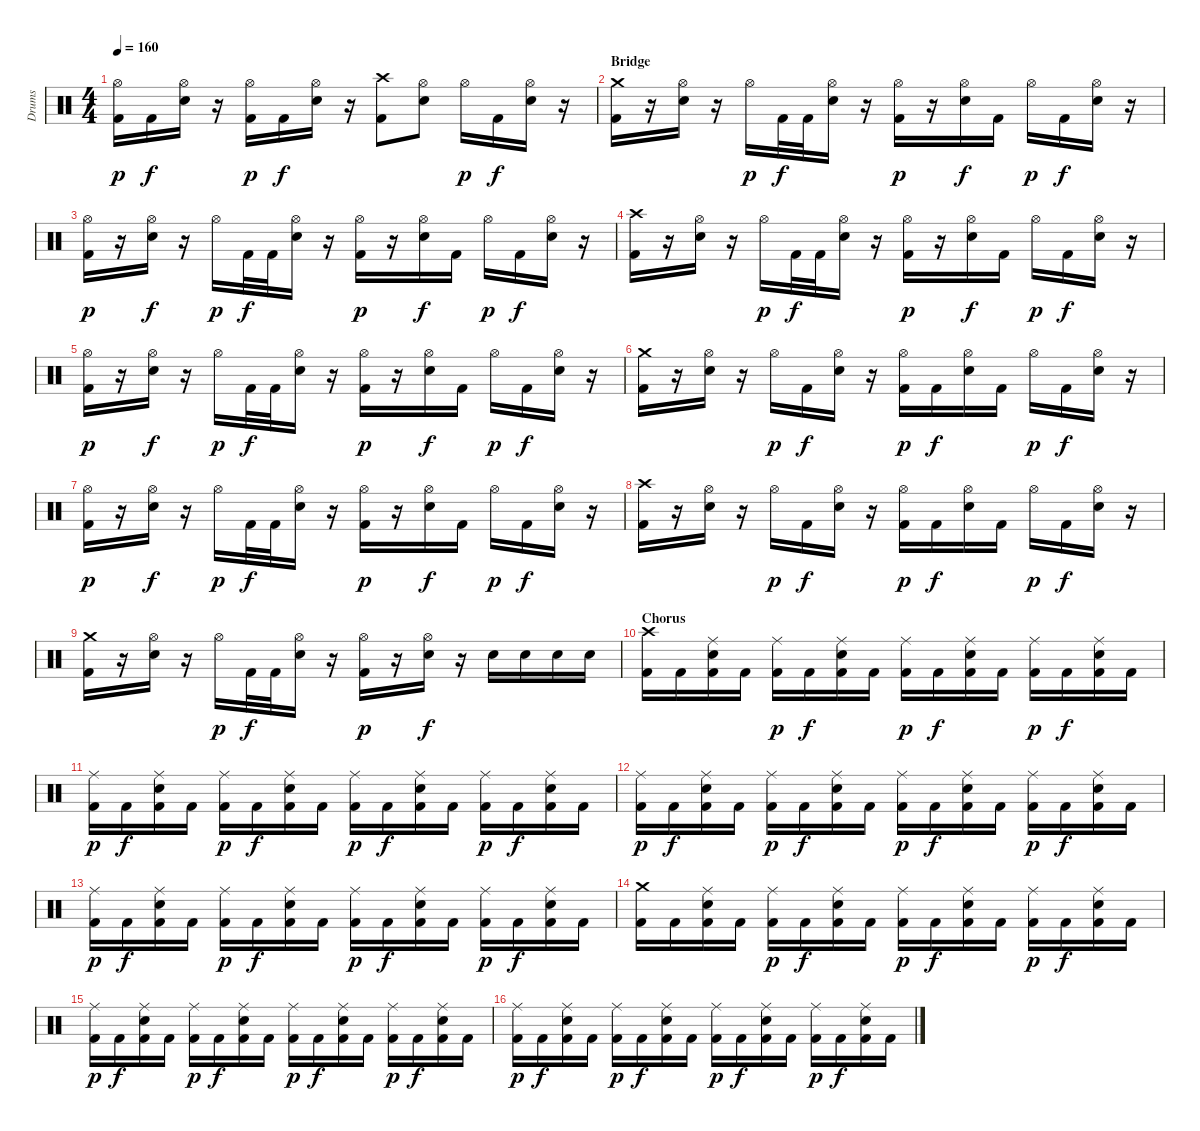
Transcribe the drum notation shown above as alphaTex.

\track ("Drums" "Drums") {instrument percussion}
\staff {score}
\articulation defaults
\ts (4 4)
\tempo 160
\clef neutral
\ks c
("Hi-Hat (open)" "Kick (hit) 2").16{dy p} "Kick (hit) 2".16{dy f} ("Hi-Hat (open)" "Snare (hit) 2").16 r.16 ("Hi-Hat (open)" "Kick (hit) 2").16{dy p} "Kick (hit) 2".16{dy f} ("Hi-Hat (open)" "Snare (hit) 2").16 r.16 ("Crash high (hit)" "Kick (hit) 2").8 ("Hi-Hat (open)" "Snare (hit) 2").8 "Hi-Hat (open)".16{dy p} "Kick (hit) 2".16{dy f} ("Hi-Hat (open)" "Snare (hit) 2").16 r.16 |
\section ("" "Bridge")
("Crash medium (hit)" "Kick (hit) 2").16 r.16 ("Hi-Hat (open)" "Snare (hit) 2").16 r.16 "Hi-Hat (open)".16{dy p} "Kick (hit) 2".32{dy f} "Kick (hit) 2".32 ("Hi-Hat (open)" "Snare (hit) 2").16 r.16 ("Hi-Hat (open)" "Kick (hit) 2").16{dy p} r.16 ("Hi-Hat (open)" "Snare (hit) 2").16{dy f} "Kick (hit) 2".16 "Hi-Hat (open)".16{dy p} "Kick (hit) 2".16{dy f} ("Hi-Hat (open)" "Snare (hit) 2").16 r.16 |
("Hi-Hat (open)" "Kick (hit) 2").16{dy p} r.16 ("Hi-Hat (open)" "Snare (hit) 2").16{dy f} r.16 "Hi-Hat (open)".16{dy p} "Kick (hit) 2".32{dy f} "Kick (hit) 2".32 ("Hi-Hat (open)" "Snare (hit) 2").16 r.16 ("Hi-Hat (open)" "Kick (hit) 2").16{dy p} r.16 ("Hi-Hat (open)" "Snare (hit) 2").16{dy f} "Kick (hit) 2".16 "Hi-Hat (open)".16{dy p} "Kick (hit) 2".16{dy f} ("Hi-Hat (open)" "Snare (hit) 2").16 r.16 |
("Crash high (hit)" "Kick (hit) 2").16 r.16 ("Hi-Hat (open)" "Snare (hit) 2").16 r.16 "Hi-Hat (open)".16{dy p} "Kick (hit) 2".32{dy f} "Kick (hit) 2".32 ("Hi-Hat (open)" "Snare (hit) 2").16 r.16 ("Hi-Hat (open)" "Kick (hit) 2").16{dy p} r.16 ("Hi-Hat (open)" "Snare (hit) 2").16{dy f} "Kick (hit) 2".16 "Hi-Hat (open)".16{dy p} "Kick (hit) 2".16{dy f} ("Hi-Hat (open)" "Snare (hit) 2").16 r.16 |
("Hi-Hat (open)" "Kick (hit) 2").16{dy p} r.16 ("Hi-Hat (open)" "Snare (hit) 2").16{dy f} r.16 "Hi-Hat (open)".16{dy p} "Kick (hit) 2".32{dy f} "Kick (hit) 2".32 ("Hi-Hat (open)" "Snare (hit) 2").16 r.16 ("Hi-Hat (open)" "Kick (hit) 2").16{dy p} r.16 ("Hi-Hat (open)" "Snare (hit) 2").16{dy f} "Kick (hit) 2".16 "Hi-Hat (open)".16{dy p} "Kick (hit) 2".16{dy f} ("Hi-Hat (open)" "Snare (hit) 2").16 r.16 |
("Crash medium (hit)" "Kick (hit) 2").16 r.16 ("Hi-Hat (open)" "Snare (hit) 2").16 r.16 "Hi-Hat (open)".16{dy p} "Kick (hit) 2".16{dy f} ("Hi-Hat (open)" "Snare (hit) 2").16 r.16 ("Hi-Hat (open)" "Kick (hit) 2").16{dy p} "Kick (hit) 2".16{dy f} ("Hi-Hat (open)" "Snare (hit) 2").16 "Kick (hit) 2".16 "Hi-Hat (open)".16{dy p} "Kick (hit) 2".16{dy f} ("Hi-Hat (open)" "Snare (hit) 2").16 r.16 |
("Hi-Hat (open)" "Kick (hit) 2").16{dy p} r.16 ("Hi-Hat (open)" "Snare (hit) 2").16{dy f} r.16 "Hi-Hat (open)".16{dy p} "Kick (hit) 2".32{dy f} "Kick (hit) 2".32 ("Hi-Hat (open)" "Snare (hit) 2").16 r.16 ("Hi-Hat (open)" "Kick (hit) 2").16{dy p} r.16 ("Hi-Hat (open)" "Snare (hit) 2").16{dy f} "Kick (hit) 2".16 "Hi-Hat (open)".16{dy p} "Kick (hit) 2".16{dy f} ("Hi-Hat (open)" "Snare (hit) 2").16 r.16 |
("Crash high (hit)" "Kick (hit) 2").16 r.16 ("Hi-Hat (open)" "Snare (hit) 2").16 r.16 "Hi-Hat (open)".16{dy p} "Kick (hit) 2".16{dy f} ("Hi-Hat (open)" "Snare (hit) 2").16 r.16 ("Hi-Hat (open)" "Kick (hit) 2").16{dy p} "Kick (hit) 2".16{dy f} ("Hi-Hat (open)" "Snare (hit) 2").16 "Kick (hit) 2".16 "Hi-Hat (open)".16{dy p} "Kick (hit) 2".16{dy f} ("Hi-Hat (open)" "Snare (hit) 2").16 r.16 |
("Crash medium (hit)" "Kick (hit) 2").16 r.16 ("Hi-Hat (open)" "Snare (hit) 2").16 r.16 "Hi-Hat (open)".16{dy p} "Kick (hit) 2".32{dy f} "Kick (hit) 2".32 ("Hi-Hat (open)" "Snare (hit) 2").16 r.16 ("Hi-Hat (open)" "Kick (hit) 2").16{dy p} r.16 ("Hi-Hat (open)" "Snare (hit) 2").16{dy f} r.16 "Snare (hit) 2".16 "Snare (hit) 2".16 "Snare (hit) 2".16 "Snare (hit) 2".16 |
\section ("" "Chorus")
("Crash high (hit)" "Kick (hit) 2").16 "Kick (hit) 2".16 ("Ride (middle)" "Snare (hit) 2" "Kick (hit) 2").16 "Kick (hit) 2".16 ("Ride (middle)" "Kick (hit) 2").16{dy p} "Kick (hit) 2".16{dy f} ("Ride (middle)" "Snare (hit) 2" "Kick (hit) 2").16 "Kick (hit) 2".16 ("Ride (middle)" "Kick (hit) 2").16{dy p} "Kick (hit) 2".16{dy f} ("Ride (middle)" "Snare (hit) 2" "Kick (hit) 2").16 "Kick (hit) 2".16 ("Ride (middle)" "Kick (hit) 2").16{dy p} "Kick (hit) 2".16{dy f} ("Ride (middle)" "Snare (hit) 2" "Kick (hit) 2").16 "Kick (hit) 2".16 |
("Ride (middle)" "Kick (hit) 2").16{dy p} "Kick (hit) 2".16{dy f} ("Ride (middle)" "Snare (hit) 2" "Kick (hit) 2").16 "Kick (hit) 2".16 ("Ride (middle)" "Kick (hit) 2").16{dy p} "Kick (hit) 2".16{dy f} ("Ride (middle)" "Snare (hit) 2" "Kick (hit) 2").16 "Kick (hit) 2".16 ("Ride (middle)" "Kick (hit) 2").16{dy p} "Kick (hit) 2".16{dy f} ("Ride (middle)" "Snare (hit) 2" "Kick (hit) 2").16 "Kick (hit) 2".16 ("Ride (middle)" "Kick (hit) 2").16{dy p} "Kick (hit) 2".16{dy f} ("Ride (middle)" "Snare (hit) 2" "Kick (hit) 2").16 "Kick (hit) 2".16 |
("Ride (middle)" "Kick (hit) 2").16{dy p} "Kick (hit) 2".16{dy f} ("Ride (middle)" "Snare (hit) 2" "Kick (hit) 2").16 "Kick (hit) 2".16 ("Ride (middle)" "Kick (hit) 2").16{dy p} "Kick (hit) 2".16{dy f} ("Ride (middle)" "Snare (hit) 2" "Kick (hit) 2").16 "Kick (hit) 2".16 ("Ride (middle)" "Kick (hit) 2").16{dy p} "Kick (hit) 2".16{dy f} ("Ride (middle)" "Snare (hit) 2" "Kick (hit) 2").16 "Kick (hit) 2".16 ("Ride (middle)" "Kick (hit) 2").16{dy p} "Kick (hit) 2".16{dy f} ("Ride (middle)" "Snare (hit) 2" "Kick (hit) 2").16 "Kick (hit) 2".16 |
("Ride (middle)" "Kick (hit) 2").16{dy p} "Kick (hit) 2".16{dy f} ("Ride (middle)" "Snare (hit) 2" "Kick (hit) 2").16 "Kick (hit) 2".16 ("Ride (middle)" "Kick (hit) 2").16{dy p} "Kick (hit) 2".16{dy f} ("Ride (middle)" "Snare (hit) 2" "Kick (hit) 2").16 "Kick (hit) 2".16 ("Ride (middle)" "Kick (hit) 2").16{dy p} "Kick (hit) 2".16{dy f} ("Ride (middle)" "Snare (hit) 2" "Kick (hit) 2").16 "Kick (hit) 2".16 ("Ride (middle)" "Kick (hit) 2").16{dy p} "Kick (hit) 2".16{dy f} ("Ride (middle)" "Snare (hit) 2" "Kick (hit) 2").16 "Kick (hit) 2".16 |
("Crash medium (hit)" "Kick (hit) 2").16 "Kick (hit) 2".16 ("Ride (middle)" "Snare (hit) 2" "Kick (hit) 2").16 "Kick (hit) 2".16 ("Ride (middle)" "Kick (hit) 2").16{dy p} "Kick (hit) 2".16{dy f} ("Ride (middle)" "Snare (hit) 2" "Kick (hit) 2").16 "Kick (hit) 2".16 ("Ride (middle)" "Kick (hit) 2").16{dy p} "Kick (hit) 2".16{dy f} ("Ride (middle)" "Snare (hit) 2" "Kick (hit) 2").16 "Kick (hit) 2".16 ("Ride (middle)" "Kick (hit) 2").16{dy p} "Kick (hit) 2".16{dy f} ("Ride (middle)" "Snare (hit) 2" "Kick (hit) 2").16 "Kick (hit) 2".16 |
("Ride (middle)" "Kick (hit) 2").16{dy p} "Kick (hit) 2".16{dy f} ("Ride (middle)" "Snare (hit) 2" "Kick (hit) 2").16 "Kick (hit) 2".16 ("Ride (middle)" "Kick (hit) 2").16{dy p} "Kick (hit) 2".16{dy f} ("Ride (middle)" "Snare (hit) 2" "Kick (hit) 2").16 "Kick (hit) 2".16 ("Ride (middle)" "Kick (hit) 2").16{dy p} "Kick (hit) 2".16{dy f} ("Ride (middle)" "Snare (hit) 2" "Kick (hit) 2").16 "Kick (hit) 2".16 ("Ride (middle)" "Kick (hit) 2").16{dy p} "Kick (hit) 2".16{dy f} ("Ride (middle)" "Snare (hit) 2" "Kick (hit) 2").16 "Kick (hit) 2".16 |
("Ride (middle)" "Kick (hit) 2").16{dy p} "Kick (hit) 2".16{dy f} ("Ride (middle)" "Snare (hit) 2" "Kick (hit) 2").16 "Kick (hit) 2".16 ("Ride (middle)" "Kick (hit) 2").16{dy p} "Kick (hit) 2".16{dy f} ("Ride (middle)" "Snare (hit) 2" "Kick (hit) 2").16 "Kick (hit) 2".16 ("Ride (middle)" "Kick (hit) 2").16{dy p} "Kick (hit) 2".16{dy f} ("Ride (middle)" "Snare (hit) 2" "Kick (hit) 2").16 "Kick (hit) 2".16 ("Ride (middle)" "Kick (hit) 2").16{dy p} "Kick (hit) 2".16{dy f} ("Ride (middle)" "Snare (hit) 2" "Kick (hit) 2").16 "Kick (hit) 2".16
